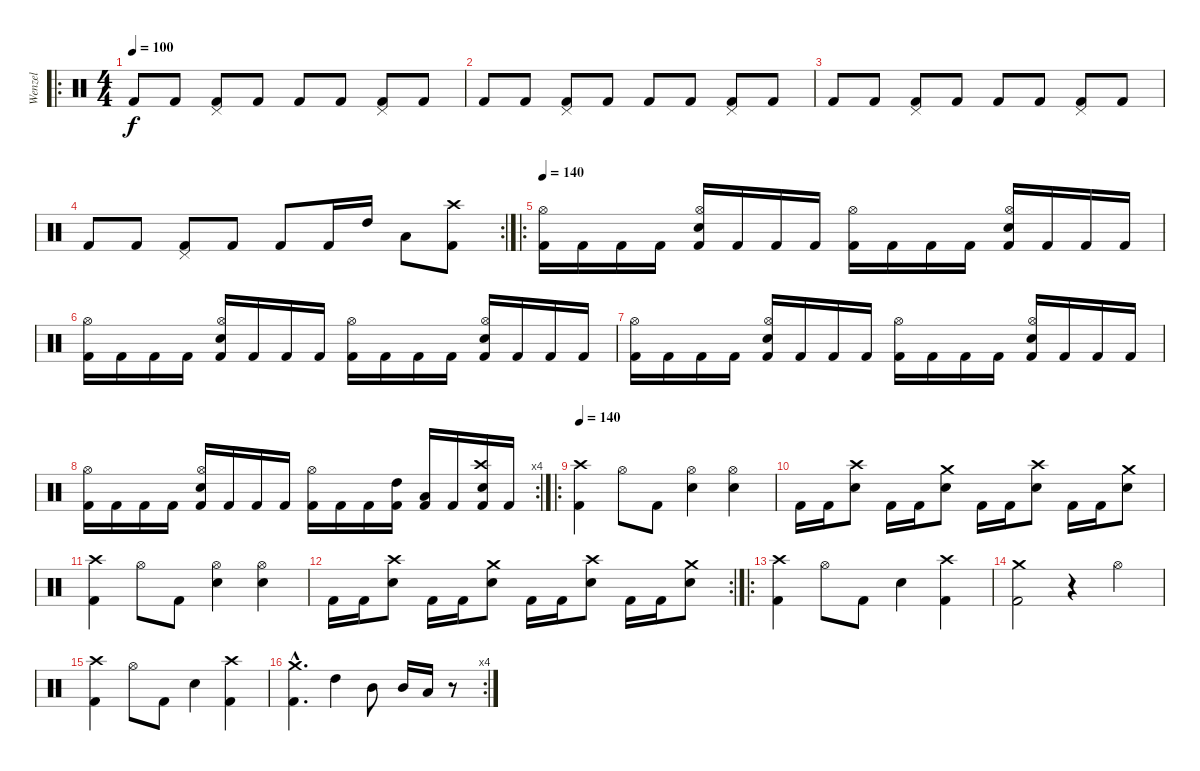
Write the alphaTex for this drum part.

\track ("Wenzel" "Wenzel") {instrument percussion}
\staff {score}
\articulation defaults
\ro
\ts (4 4)
\tempo 100
\clef neutral
\ks c "Kick (hit) 2".8{dy f} "Kick (hit) 2".8
("Pedal Hi-Hat (hit)" "Kick (hit) 2").8 "Kick (hit) 2".8 "Kick (hit) 2".8 "Kick (hit) 2".8 ("Pedal Hi-Hat (hit)" "Kick (hit) 2").8 "Kick (hit) 2".8 |
"Kick (hit) 2".8 "Kick (hit) 2".8 ("Pedal Hi-Hat (hit)" "Kick (hit) 2").8 "Kick (hit) 2".8 "Kick (hit) 2".8 "Kick (hit) 2".8 ("Pedal Hi-Hat (hit)" "Kick (hit) 2").8 "Kick (hit) 2".8 |
"Kick (hit) 2".8 "Kick (hit) 2".8 ("Pedal Hi-Hat (hit)" "Kick (hit) 2").8 "Kick (hit) 2".8 "Kick (hit) 2".8 "Kick (hit) 2".8 ("Pedal Hi-Hat (hit)" "Kick (hit) 2").8 "Kick (hit) 2".8 |
\rc 2 "Kick (hit) 2".8 "Kick (hit) 2".8
("Pedal Hi-Hat (hit)" "Kick (hit) 2").8 "Kick (hit) 2".8 "Kick (hit) 2".8 "Kick (hit) 2".16 "High Tom (hit)".16 "Low Tom (hit)".8 ("Crash high (hit)" "Kick (hit) 2").8 |
\ro
\tempo 180
\tempo 140
("Hi-Hat (open)" "Kick (hit) 2").16 "Kick (hit) 2".16 "Kick (hit) 2".16 "Kick (hit) 2".16 ("Hi-Hat (open)" "Snare (hit) 2" "Kick (hit) 2").16 "Kick (hit) 2".16 "Kick (hit) 2".16 "Kick (hit) 2".16 ("Hi-Hat (open)" "Kick (hit) 2").16 "Kick (hit) 2".16 "Kick (hit) 2".16 "Kick (hit) 2".16 ("Hi-Hat (open)" "Snare (hit) 2" "Kick (hit) 2").16 "Kick (hit) 2".16 "Kick (hit) 2".16 "Kick (hit) 2".16 |
("Hi-Hat (open)" "Kick (hit) 2").16 "Kick (hit) 2".16 "Kick (hit) 2".16 "Kick (hit) 2".16 ("Hi-Hat (open)" "Snare (hit) 2" "Kick (hit) 2").16 "Kick (hit) 2".16 "Kick (hit) 2".16 "Kick (hit) 2".16 ("Hi-Hat (open)" "Kick (hit) 2").16 "Kick (hit) 2".16 "Kick (hit) 2".16 "Kick (hit) 2".16 ("Hi-Hat (open)" "Snare (hit) 2" "Kick (hit) 2").16 "Kick (hit) 2".16 "Kick (hit) 2".16 "Kick (hit) 2".16 |
("Hi-Hat (open)" "Kick (hit) 2").16 "Kick (hit) 2".16 "Kick (hit) 2".16 "Kick (hit) 2".16 ("Hi-Hat (open)" "Snare (hit) 2" "Kick (hit) 2").16 "Kick (hit) 2".16 "Kick (hit) 2".16 "Kick (hit) 2".16 ("Hi-Hat (open)" "Kick (hit) 2").16 "Kick (hit) 2".16 "Kick (hit) 2".16 "Kick (hit) 2".16 ("Hi-Hat (open)" "Snare (hit) 2" "Kick (hit) 2").16 "Kick (hit) 2".16 "Kick (hit) 2".16 "Kick (hit) 2".16 |
\rc 4
("Hi-Hat (open)" "Kick (hit) 2").16 "Kick (hit) 2".16 "Kick (hit) 2".16 "Kick (hit) 2".16 ("Hi-Hat (open)" "Snare (hit) 2" "Kick (hit) 2").16 "Kick (hit) 2".16 "Kick (hit) 2".16 "Kick (hit) 2".16 ("Hi-Hat (open)" "Kick (hit) 2").16 "Kick (hit) 2".16 "Kick (hit) 2".16 ("High Tom (hit)" "Kick (hit) 2").16 ("Low Tom (hit)" "Kick (hit) 2").16 "Kick (hit) 2".16 ("Crash high (hit)" "Snare (hit) 2" "Kick (hit) 2").16 "Kick (hit) 2".16 |
\ro
\tempo 140
("Crash high (hit)" "Kick (hit) 2").4 "Hi-Hat (open)".8 "Kick (hit) 2".8 ("Hi-Hat (open)" "Snare (hit) 2").4 ("Hi-Hat (open)" "Snare (hit) 2").4 |
"Kick (hit) 2".16 "Kick (hit) 2".16 ("Crash high (hit)" "Snare (hit) 2").8 "Kick (hit) 2".16 "Kick (hit) 2".16 ("Crash medium (hit)" "Snare (hit) 2").8 "Kick (hit) 2".16 "Kick (hit) 2".16 ("Crash high (hit)" "Snare (hit) 2").8 "Kick (hit) 2".16 "Kick (hit) 2".16 ("Crash medium (hit)" "Snare (hit) 2").8 |
("Crash high (hit)" "Kick (hit) 2").4 "Hi-Hat (open)".8 "Kick (hit) 2".8 ("Hi-Hat (open)" "Snare (hit) 2").4 ("Hi-Hat (open)" "Snare (hit) 2").4 |
\rc 2 "Kick (hit) 2".16 "Kick (hit) 2".16
("Crash high (hit)" "Snare (hit) 2").8 "Kick (hit) 2".16 "Kick (hit) 2".16 ("Crash medium (hit)" "Snare (hit) 2").8 "Kick (hit) 2".16 "Kick (hit) 2".16 ("Crash high (hit)" "Snare (hit) 2").8 "Kick (hit) 2".16 "Kick (hit) 2".16 ("Crash medium (hit)" "Snare (hit) 2").8 |
\ro
("Crash high (hit)" "Kick (hit) 2").4 "Hi-Hat (open)".8 "Kick (hit) 2".8 "Snare (hit) 2".4 ("Crash high (hit)" "Kick (hit) 2").4 |
("Crash medium (hit)" "Kick (hit) 2").2 r.4 "Hi-Hat (open)".4 |
("Crash high (hit)" "Kick (hit) 2").4 "Hi-Hat (open)".8 "Kick (hit) 2".8 "Snare (hit) 2".4 ("Crash high (hit)" "Kick (hit) 2").4 |
\rc 4
("Crash medium (hit)"{hac} "Kick (hit) 2"{hac}).4{d} "High Tom (hit)".4 "Mid Tom (hit)".8 "Mid Tom (hit)".16 "Low Tom (hit)".16 r.8
